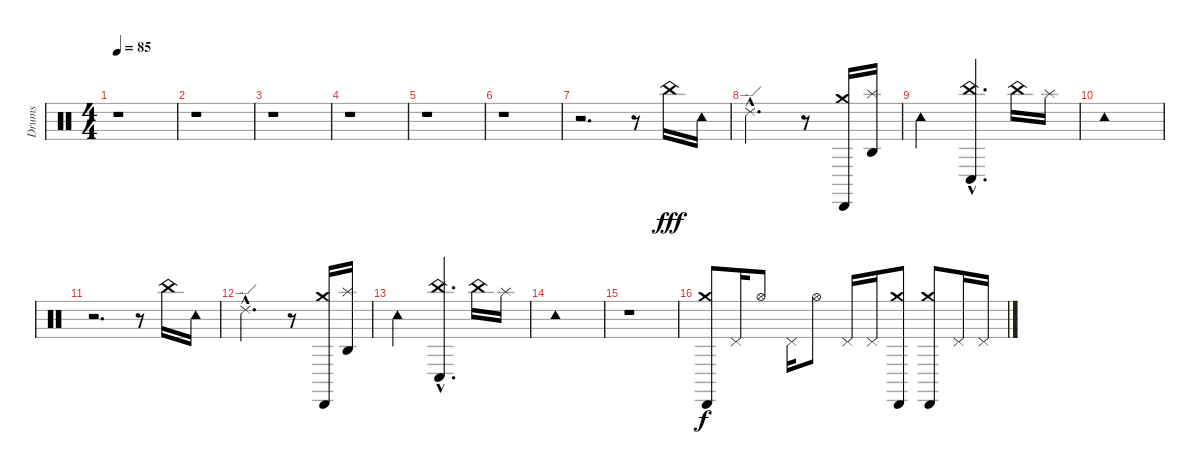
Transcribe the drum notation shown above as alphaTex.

\track ("Drums" "Drums") {instrument percussion}
\staff {score}
\articulation defaults
\ts (4 4)
\tempo 85
\clef neutral
\ks c
r.1{dy f} |
r.1 |
r.1 |
r.1 |
r.1 |
r.1 |
r.2{d} r.8 "China (hit)".16{dy fff} "Tambourine (hit)".16 |
"Ride (edge) 2"{hac}.2{d} r.8 ("Crash medium (hit)" "Cabasa (hit)").16 ("Splash (hit)" "Agogo high (hit)").16 |
"Tambourine (hit)".2 ("China (hit)"{hac} "Conga low (hit)"{hac}).4{d} "China (hit)".16 "Splash (hit)".16 |
"Tambourine (hit)".1 |
r.2{d} r.8 "China (hit)".16 "Tambourine (hit)".16 |
"Ride (edge) 2"{hac}.2{d} r.8 ("Crash medium (hit)" "Cabasa (hit)").16 ("Splash (hit)" "Agogo high (hit)").16 |
"Tambourine (hit)".2 ("China (hit)"{hac} "Conga low (hit)"{hac}).4{d} "China (hit)".16 "Splash (hit)".16 |
"Tambourine (hit)".1 |
r.1 |
("Crash medium (hit)" "Cabasa (hit)").8{dy f} "Pedal Hi-Hat (hit)".16 "Hi-Hat (open)".8 "Pedal Hi-Hat (hit)".16 "Hi-Hat (open)".8 "Pedal Hi-Hat (hit)".16 "Pedal Hi-Hat (hit)".16 ("Crash medium (hit)" "Cabasa (hit)").8 ("Crash medium (hit)" "Cabasa (hit)").8 "Pedal Hi-Hat (hit)".16 "Pedal Hi-Hat (hit)".16
